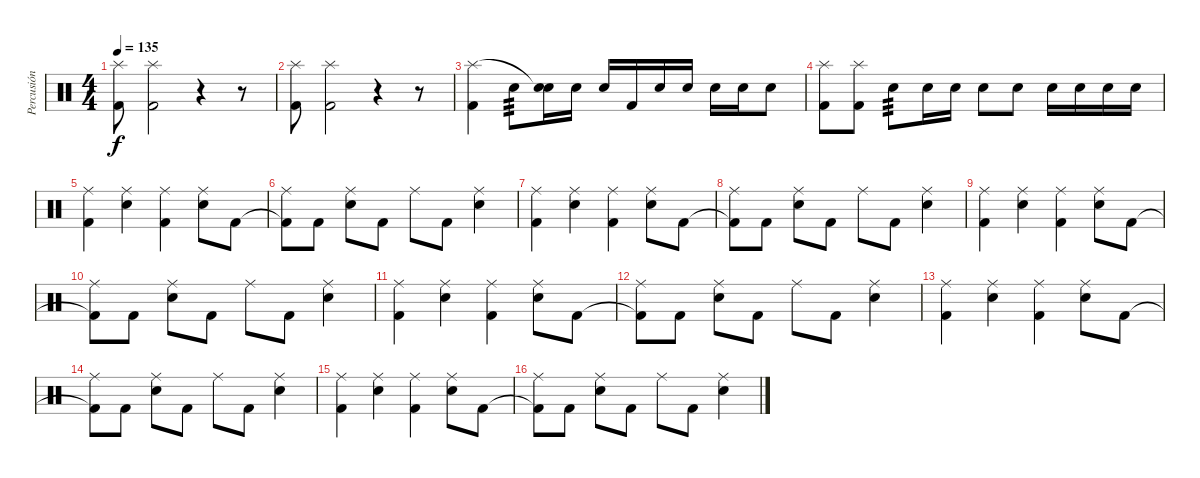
\track ("Percusión" "Percusión") {instrument percussion}
\staff {score}
\articulation defaults
\ts (4 4)
\tempo 135
\clef neutral
\ks c
("Splash (hit)" "Kick (hit) 2").8{dy f} ("Splash (hit)" "Kick (hit) 2").2 r.4 r.8 |
("Splash (hit)" "Kick (hit) 2").8 ("Splash (hit)" "Kick (hit) 2").2 r.4 r.8 |
("Kick (hit) 2" "Splash (hit)").4 "Snare (hit) 2".8{tp 3} ("Snare (hit) 2" "Snare (hit)"{t}).16 "Snare (hit) 2".16 "Snare (hit) 2".16 "Kick (hit) 2".16 "Snare (hit) 2".16 "Snare (hit) 2".16 "Snare (hit) 2".16 "Snare (hit) 2".16 "Snare (hit) 2".8 |
("Kick (hit) 2" "Splash (hit)").8 ("Kick (hit) 2" "Splash (hit)").8 "Snare (hit) 2".8{tp 3} "Snare (hit) 2".16 "Snare (hit) 2".16 "Snare (hit) 2".8 "Snare (hit) 2".8 "Snare (hit) 2".16 "Snare (hit) 2".16 "Snare (hit) 2".16 "Snare (hit) 2".16 |
("Kick (hit) 2" "Ride (middle)").4 ("Snare (hit) 2" "Ride (middle)").4 ("Kick (hit) 2" "Ride (middle)").4 ("Snare (hit) 2" "Ride (middle)").8 "Kick (hit) 2".8 |
("Kick (hit) 2"{t} "Ride (middle)").8 "Kick (hit) 2".8 ("Snare (hit) 2" "Ride (middle)").8 "Kick (hit) 2".8 "Ride (middle)".8 "Kick (hit) 2".8 ("Snare (hit) 2" "Ride (middle)").4 |
("Kick (hit) 2" "Ride (middle)").4 ("Snare (hit) 2" "Ride (middle)").4 ("Kick (hit) 2" "Ride (middle)").4 ("Snare (hit) 2" "Ride (middle)").8 "Kick (hit) 2".8 |
("Kick (hit) 2"{t} "Ride (middle)").8 "Kick (hit) 2".8 ("Snare (hit) 2" "Ride (middle)").8 "Kick (hit) 2".8 "Ride (middle)".8 "Kick (hit) 2".8 ("Snare (hit) 2" "Ride (middle)").4 |
("Kick (hit) 2" "Ride (middle)").4 ("Snare (hit) 2" "Ride (middle)").4 ("Kick (hit) 2" "Ride (middle)").4 ("Snare (hit) 2" "Ride (middle)").8 "Kick (hit) 2".8 |
("Kick (hit) 2"{t} "Ride (middle)").8 "Kick (hit) 2".8 ("Snare (hit) 2" "Ride (middle)").8 "Kick (hit) 2".8 "Ride (middle)".8 "Kick (hit) 2".8 ("Snare (hit) 2" "Ride (middle)").4 |
("Kick (hit) 2" "Ride (middle)").4 ("Snare (hit) 2" "Ride (middle)").4 ("Kick (hit) 2" "Ride (middle)").4 ("Snare (hit) 2" "Ride (middle)").8 "Kick (hit) 2".8 |
("Kick (hit) 2"{t} "Ride (middle)").8 "Kick (hit) 2".8 ("Snare (hit) 2" "Ride (middle)").8 "Kick (hit) 2".8 "Ride (middle)".8 "Kick (hit) 2".8 ("Snare (hit) 2" "Ride (middle)").4 |
("Kick (hit) 2" "Ride (middle)").4 ("Snare (hit) 2" "Ride (middle)").4 ("Kick (hit) 2" "Ride (middle)").4 ("Snare (hit) 2" "Ride (middle)").8 "Kick (hit) 2".8 |
("Kick (hit) 2"{t} "Ride (middle)").8 "Kick (hit) 2".8 ("Snare (hit) 2" "Ride (middle)").8 "Kick (hit) 2".8 "Ride (middle)".8 "Kick (hit) 2".8 ("Snare (hit) 2" "Ride (middle)").4 |
("Kick (hit) 2" "Ride (middle)").4 ("Snare (hit) 2" "Ride (middle)").4 ("Kick (hit) 2" "Ride (middle)").4 ("Snare (hit) 2" "Ride (middle)").8 "Kick (hit) 2".8 |
("Kick (hit) 2"{t} "Ride (middle)").8 "Kick (hit) 2".8 ("Snare (hit) 2" "Ride (middle)").8 "Kick (hit) 2".8 "Ride (middle)".8 "Kick (hit) 2".8 ("Snare (hit) 2" "Ride (middle)").4
